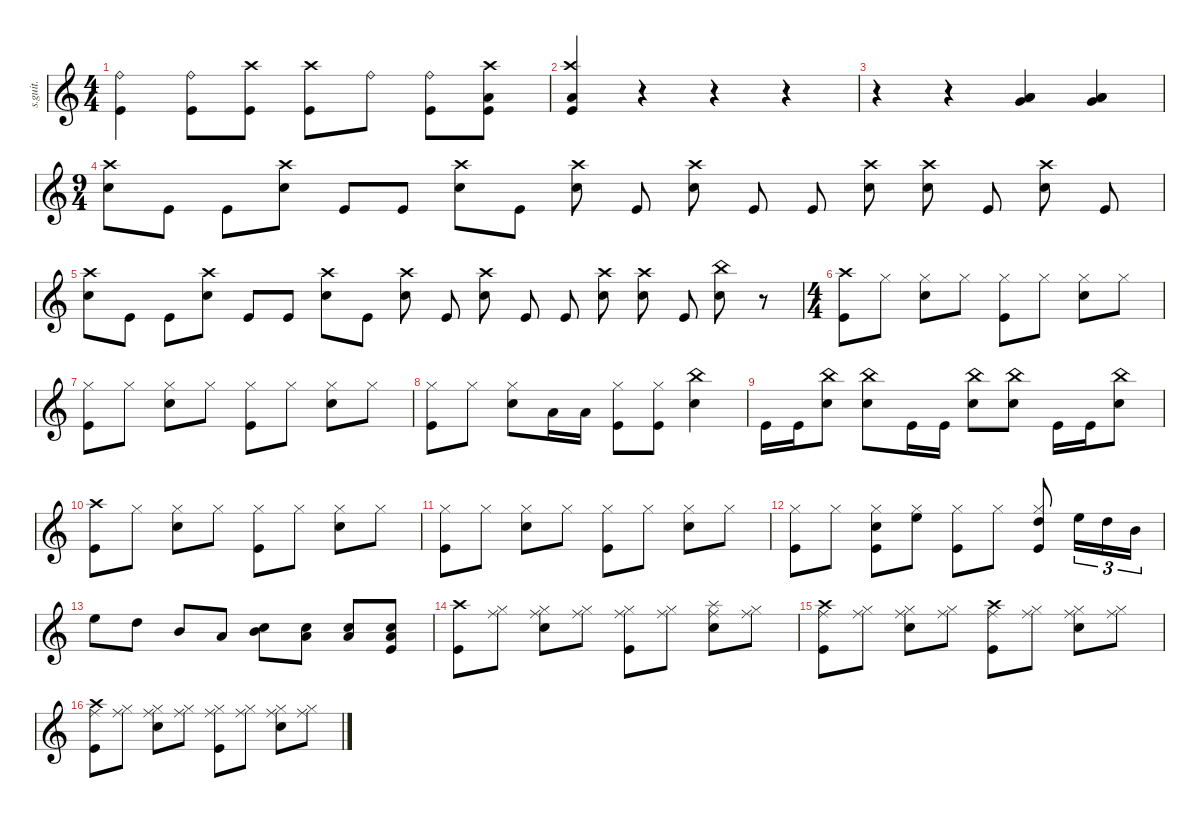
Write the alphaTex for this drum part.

\defaultSystemsLayout 4
\hideDynamics
\bracketExtendMode nobrackets
\track ("A Nameless Ghoul - Drums" "s.guit.") {instrument percussion}
\staff {score}
\articulation defaults
\ts (4 4)
\tempo (130 hide)
\clef g2
\ks c
("Ride (bell)" "Kick (hit)").4{dy f} ("Ride (bell)" "Kick (hit)").8 ("Crash high (hit)" "Kick (hit)").8 ("Crash high (hit)" "Kick (hit)").8 "Ride (bell)".8 ("Ride (bell)" "Kick (hit)").8 ("Crash high (hit)" "Low Floor Tom (hit)" "Kick (hit)").8 |
("Crash high (hit)" "Low Floor Tom (hit)" "Kick (hit)").4 r.4 r.4 r.4 |
r.4 r.4 ("Low Tom (hit)" "Very Low Tom (hit)" "Low Floor Tom (hit)").4 ("Low Tom (hit)" "Very Low Tom (hit)" "Low Floor Tom (hit)").4 |
\ts (9 4)
\beaming (8 2 2 2 2)
("Crash high (hit)" "Electric Snare (hit)").8 "Kick (hit)".8 "Kick (hit)".8 ("Crash high (hit)" "Electric Snare (hit)").8 "Kick (hit)".8 "Kick (hit)".8 ("Crash high (hit)" "Electric Snare (hit)").8 "Kick (hit)".8 ("Crash high (hit)" "Electric Snare (hit)").8 "Kick (hit)".8 ("Crash high (hit)" "Electric Snare (hit)").8 "Kick (hit)".8 "Kick (hit)".8 ("Crash high (hit)" "Electric Snare (hit)").8 ("Crash high (hit)" "Electric Snare (hit)").8 "Kick (hit)".8 ("Crash high (hit)" "Electric Snare (hit)").8 "Kick (hit)".8 |
("Crash high (hit)" "Electric Snare (hit)").8 "Kick (hit)".8 "Kick (hit)".8 ("Crash high (hit)" "Electric Snare (hit)").8 "Kick (hit)".8 "Kick (hit)".8 ("Crash high (hit)" "Electric Snare (hit)").8 "Kick (hit)".8 ("Crash high (hit)" "Electric Snare (hit)").8 "Kick (hit)".8 ("Crash high (hit)" "Electric Snare (hit)").8 "Kick (hit)".8 "Kick (hit)".8 ("Crash high (hit)" "Electric Snare (hit)").8 ("Crash high (hit)" "Electric Snare (hit)").8 "Kick (hit)".8 ("China (hit)" "Electric Snare (hit)").8 r.8 |
\ts (4 4)
\beaming (8 2 2 2 2)
("Crash high (hit)" "Kick (hit)").8 "Hi-Hat (closed)".8 ("Hi-Hat (closed)" "Electric Snare (hit)").8 "Hi-Hat (closed)".8 ("Hi-Hat (closed)" "Kick (hit)").8 "Hi-Hat (closed)".8 ("Hi-Hat (closed)" "Electric Snare (hit)").8 "Hi-Hat (closed)".8 |
("Hi-Hat (closed)" "Kick (hit)").8 "Hi-Hat (closed)".8 ("Hi-Hat (closed)" "Electric Snare (hit)").8 "Hi-Hat (closed)".8 ("Hi-Hat (closed)" "Kick (hit)").8 "Hi-Hat (closed)".8 ("Hi-Hat (closed)" "Electric Snare (hit)").8 "Hi-Hat (closed)".8 |
("Hi-Hat (closed)" "Kick (hit)").8 "Hi-Hat (closed)".8 ("Hi-Hat (closed)" "Electric Snare (hit)").8 "Low Tom (hit)".16 "Low Floor Tom (hit)".16 ("Hi-Hat (closed)" "Kick (hit)").8 ("Hi-Hat (closed)" "Kick (hit)").8 ("China (hit)" "Electric Snare (hit)").4 |
"Kick (hit)".16 "Kick (hit)".16 ("China (hit)" "Electric Snare (hit)").8 ("China (hit)" "Electric Snare (hit)").8 "Kick (hit)".16 "Kick (hit)".16 ("China (hit)" "Electric Snare (hit)").8 ("China (hit)" "Electric Snare (hit)").8 "Kick (hit)".16 "Kick (hit)".16 ("China (hit)" "Electric Snare (hit)").8 |
("Crash high (hit)" "Kick (hit)").8 "Hi-Hat (closed)".8 ("Hi-Hat (closed)" "Electric Snare (hit)").8 "Hi-Hat (closed)".8 ("Hi-Hat (closed)" "Kick (hit)").8 "Hi-Hat (closed)".8 ("Hi-Hat (closed)" "Electric Snare (hit)").8 "Hi-Hat (closed)".8 |
("Hi-Hat (closed)" "Kick (hit)").8 "Hi-Hat (closed)".8 ("Hi-Hat (closed)" "Electric Snare (hit)").8 "Hi-Hat (closed)".8 ("Hi-Hat (closed)" "Kick (hit)").8 "Hi-Hat (closed)".8 ("Hi-Hat (closed)" "Electric Snare (hit)").8 "Hi-Hat (closed)".8 |
("Hi-Hat (closed)" "Kick (hit)").8 "Hi-Hat (closed)".8 ("Hi-Hat (closed)" "Electric Snare (hit)" "Kick (hit)").8 ("Hi-Hat (closed)" "High Floor Tom (hit)").8 ("Hi-Hat (closed)" "Kick (hit)").8 "Hi-Hat (closed)".8 ("Hi-Hat (closed)" "High Tom (hit)" "Kick (hit)").8 "High Floor Tom (hit)".16{tu (3 2)} "High Tom (hit)".16{tu (3 2)} "Mid Tom (hit)".16{tu (3 2)} |
"High Floor Tom (hit)".8 "High Tom (hit)".8 "Mid Tom (hit)".8 "Low Tom (hit)".8 ("Electric Snare (hit)" "Mid Tom (hit)").8 ("Electric Snare (hit)" "Low Tom (hit)").8 ("Electric Snare (hit)" "Low Tom (hit)").8 ("Electric Snare (hit)" "Low Floor Tom (hit)" "Kick (hit)").8 |
("Crash high (hit)" "Kick (hit)").8 ("Hi-Hat (closed)" "Ride (middle)").8 ("Hi-Hat (closed)" "Electric Snare (hit)" "Ride (middle)").8 ("Hi-Hat (closed)" "Ride (middle)").8 ("Hi-Hat (closed)" "Kick (hit)" "Ride (middle)").8 ("Hi-Hat (closed)" "Ride (middle)").8 ("Splash (hit)" "Electric Snare (hit)" "Ride (middle)").8 ("Hi-Hat (closed)" "Ride (middle)").8 |
("Crash high (hit)" "Kick (hit)" "Ride (middle)").8 ("Hi-Hat (closed)" "Ride (middle)").8 ("Hi-Hat (closed)" "Electric Snare (hit)" "Ride (middle)").8 ("Hi-Hat (closed)" "Ride (middle)").8 ("Crash high (hit)" "Kick (hit)" "Ride (middle)").8 ("Hi-Hat (closed)" "Ride (middle)").8 ("Hi-Hat (closed)" "Electric Snare (hit)" "Ride (middle)").8 ("Hi-Hat (closed)" "Ride (middle)").8 |
("Crash high (hit)" "Kick (hit)" "Ride (middle)").8 ("Hi-Hat (closed)" "Ride (middle)").8 ("Hi-Hat (closed)" "Electric Snare (hit)" "Ride (middle)").8 ("Hi-Hat (closed)" "Ride (middle)").8 ("Hi-Hat (closed)" "Kick (hit)" "Ride (middle)").8 ("Hi-Hat (closed)" "Ride (middle)").8 ("Hi-Hat (closed)" "Electric Snare (hit)" "Ride (middle)").8 ("Hi-Hat (closed)" "Ride (middle)").8
